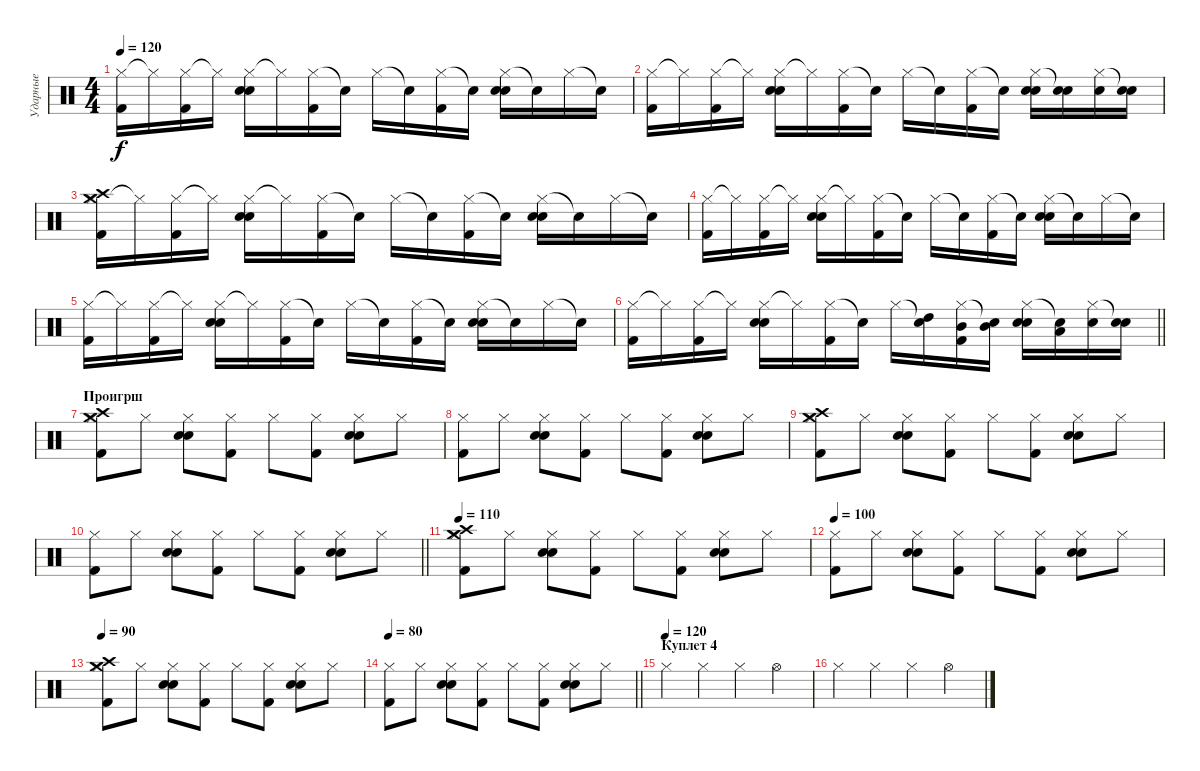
\track ("Ударные" "Ударные") {instrument percussion}
\staff {score}
\articulation defaults
\ts (4 4)
\tempo 120
\clef neutral
\ks c
("Hi-Hat (closed)" "Kick (hit) 2").16{dy f} "Hi-Hat (closed)"{t}.16 ("Hi-Hat (closed)" "Kick (hit) 2").16 "Hi-Hat (closed)"{t}.16 ("Hi-Hat (closed)" "Electric Snare (hit)" "Snare (hit) 2").16 "Hi-Hat (closed)"{t}.16 ("Hi-Hat (closed)" "Kick (hit) 2").16 "Snare (hit)"{t}.16 "Hi-Hat (closed)".16 "Snare (hit)"{t}.16 ("Hi-Hat (closed)" "Kick (hit) 2").16 "Snare (hit)"{t}.16 ("Hi-Hat (closed)" "Electric Snare (hit)" "Snare (hit) 2").16 "Snare (hit)"{t}.16 "Hi-Hat (closed)".16 "Snare (hit)"{t}.16 |
("Hi-Hat (closed)" "Kick (hit) 2").16 "Hi-Hat (closed)"{t}.16 ("Hi-Hat (closed)" "Kick (hit) 2").16 "Hi-Hat (closed)"{t}.16 ("Hi-Hat (closed)" "Electric Snare (hit)" "Snare (hit) 2").16 "Hi-Hat (closed)"{t}.16 ("Hi-Hat (closed)" "Kick (hit) 2").16 "Snare (hit)"{t}.16 "Hi-Hat (closed)".16 "Snare (hit)"{t}.16 ("Hi-Hat (closed)" "Kick (hit) 2").16 "Snare (hit)"{t}.16 ("Hi-Hat (closed)" "Electric Snare (hit)" "Snare (hit) 2").16 ("Snare (hit)"{t} "Electric Snare (hit)").16 ("Hi-Hat (closed)" "Electric Snare (hit)").16 ("Snare (hit)"{t} "Electric Snare (hit)").16 |
("Hi-Hat (closed)" "Crash medium (hit)" "Crash high (hit)" "Kick (hit) 2").16 "Hi-Hat (closed)"{t}.16 ("Hi-Hat (closed)" "Kick (hit) 2").16 "Hi-Hat (closed)"{t}.16 ("Hi-Hat (closed)" "Electric Snare (hit)" "Snare (hit) 2").16 "Hi-Hat (closed)"{t}.16 ("Hi-Hat (closed)" "Kick (hit) 2").16 "Snare (hit)"{t}.16 "Hi-Hat (closed)".16 "Snare (hit)"{t}.16 ("Hi-Hat (closed)" "Kick (hit) 2").16 "Snare (hit)"{t}.16 ("Hi-Hat (closed)" "Electric Snare (hit)" "Snare (hit) 2").16 "Snare (hit)"{t}.16 "Hi-Hat (closed)".16 "Snare (hit)"{t}.16 |
("Hi-Hat (closed)" "Kick (hit) 2").16 "Hi-Hat (closed)"{t}.16 ("Hi-Hat (closed)" "Kick (hit) 2").16 "Hi-Hat (closed)"{t}.16 ("Hi-Hat (closed)" "Electric Snare (hit)" "Snare (hit) 2").16 "Hi-Hat (closed)"{t}.16 ("Hi-Hat (closed)" "Kick (hit) 2").16 "Snare (hit)"{t}.16 "Hi-Hat (closed)".16 "Snare (hit)"{t}.16 ("Hi-Hat (closed)" "Kick (hit) 2").16 "Snare (hit)"{t}.16 ("Hi-Hat (closed)" "Electric Snare (hit)" "Snare (hit) 2").16 "Snare (hit)"{t}.16 "Hi-Hat (closed)".16 "Snare (hit)"{t}.16 |
("Hi-Hat (closed)" "Kick (hit) 2").16 "Hi-Hat (closed)"{t}.16 ("Hi-Hat (closed)" "Kick (hit) 2").16 "Hi-Hat (closed)"{t}.16 ("Hi-Hat (closed)" "Electric Snare (hit)" "Snare (hit) 2").16 "Hi-Hat (closed)"{t}.16 ("Hi-Hat (closed)" "Kick (hit) 2").16 "Snare (hit)"{t}.16 "Hi-Hat (closed)".16 "Snare (hit)"{t}.16 ("Hi-Hat (closed)" "Kick (hit) 2").16 "Snare (hit)"{t}.16 ("Hi-Hat (closed)" "Electric Snare (hit)" "Snare (hit) 2").16 "Snare (hit)"{t}.16 "Hi-Hat (closed)".16 "Snare (hit)"{t}.16 |
\barLineRight lightlight
("Hi-Hat (closed)" "Kick (hit) 2").16 "Hi-Hat (closed)"{t}.16 ("Hi-Hat (closed)" "Kick (hit) 2").16 "Hi-Hat (closed)"{t}.16 ("Hi-Hat (closed)" "Electric Snare (hit)" "Snare (hit) 2").16 "Hi-Hat (closed)"{t}.16 ("Hi-Hat (closed)" "Kick (hit) 2").16 "Snare (hit)"{t}.16 "Hi-Hat (closed)".16 ("Snare (hit)"{t} "High Tom (hit)").16 ("Hi-Hat (closed)" "Mid Tom (hit)" "Kick (hit) 2").16 ("Snare (hit)"{t} "Mid Tom (hit)").16 ("Hi-Hat (closed)" "Electric Snare (hit)" "Snare (hit) 2").16 ("Snare (hit)"{t} "Low Tom (hit)").16 ("Hi-Hat (closed)" "Electric Snare (hit)").16 ("Snare (hit)"{t} "Electric Snare (hit)").16 |
\section ("" "Проигрш")
("Hi-Hat (closed)" "Crash high (hit)" "Crash medium (hit)" "Kick (hit) 2").8 "Hi-Hat (closed)".8 ("Hi-Hat (closed)" "Electric Snare (hit)" "Snare (hit) 2").8 ("Hi-Hat (closed)" "Kick (hit) 2").8 "Hi-Hat (closed)".8 ("Hi-Hat (closed)" "Kick (hit) 2").8 ("Hi-Hat (closed)" "Snare (hit) 2" "Electric Snare (hit)").8 "Hi-Hat (closed)".8 |
("Hi-Hat (closed)" "Kick (hit) 2").8 "Hi-Hat (closed)".8 ("Hi-Hat (closed)" "Electric Snare (hit)" "Snare (hit) 2").8 ("Hi-Hat (closed)" "Kick (hit) 2").8 "Hi-Hat (closed)".8 ("Hi-Hat (closed)" "Kick (hit) 2").8 ("Hi-Hat (closed)" "Snare (hit) 2" "Electric Snare (hit)").8 "Hi-Hat (closed)".8 |
("Hi-Hat (closed)" "Crash high (hit)" "Crash medium (hit)" "Kick (hit) 2").8 "Hi-Hat (closed)".8 ("Hi-Hat (closed)" "Electric Snare (hit)" "Snare (hit) 2").8 ("Hi-Hat (closed)" "Kick (hit) 2").8 "Hi-Hat (closed)".8 ("Hi-Hat (closed)" "Kick (hit) 2").8 ("Hi-Hat (closed)" "Snare (hit) 2" "Electric Snare (hit)").8 "Hi-Hat (closed)".8 |
\barLineRight lightlight
("Hi-Hat (closed)" "Kick (hit) 2").8 "Hi-Hat (closed)".8 ("Hi-Hat (closed)" "Electric Snare (hit)" "Snare (hit) 2").8 ("Hi-Hat (closed)" "Kick (hit) 2").8 "Hi-Hat (closed)".8 ("Hi-Hat (closed)" "Kick (hit) 2").8 ("Hi-Hat (closed)" "Snare (hit) 2" "Electric Snare (hit)").8 "Hi-Hat (closed)".8 |
\tempo 110
("Hi-Hat (closed)" "Crash high (hit)" "Crash medium (hit)" "Kick (hit) 2").8 "Hi-Hat (closed)".8 ("Hi-Hat (closed)" "Electric Snare (hit)" "Snare (hit) 2").8 ("Hi-Hat (closed)" "Kick (hit) 2").8 "Hi-Hat (closed)".8 ("Hi-Hat (closed)" "Kick (hit) 2").8 ("Hi-Hat (closed)" "Snare (hit) 2" "Electric Snare (hit)").8 "Hi-Hat (closed)".8 |
\tempo 100
("Hi-Hat (closed)" "Kick (hit) 2").8 "Hi-Hat (closed)".8 ("Hi-Hat (closed)" "Electric Snare (hit)" "Snare (hit) 2").8 ("Hi-Hat (closed)" "Kick (hit) 2").8 "Hi-Hat (closed)".8 ("Hi-Hat (closed)" "Kick (hit) 2").8 ("Hi-Hat (closed)" "Snare (hit) 2" "Electric Snare (hit)").8 "Hi-Hat (closed)".8 |
\tempo 90
("Hi-Hat (closed)" "Crash high (hit)" "Crash medium (hit)" "Kick (hit) 2").8 "Hi-Hat (closed)".8 ("Hi-Hat (closed)" "Electric Snare (hit)" "Snare (hit) 2").8 ("Hi-Hat (closed)" "Kick (hit) 2").8 "Hi-Hat (closed)".8 ("Hi-Hat (closed)" "Kick (hit) 2").8 ("Hi-Hat (closed)" "Snare (hit) 2" "Electric Snare (hit)").8 "Hi-Hat (closed)".8 |
\tempo 80
\barLineRight lightlight
("Hi-Hat (closed)" "Kick (hit) 2").8 "Hi-Hat (closed)".8 ("Hi-Hat (closed)" "Electric Snare (hit)" "Snare (hit) 2").8 ("Hi-Hat (closed)" "Kick (hit) 2").8 "Hi-Hat (closed)".8 ("Hi-Hat (closed)" "Kick (hit) 2").8 ("Hi-Hat (closed)" "Snare (hit) 2" "Electric Snare (hit)").8 "Hi-Hat (closed)".8 |
\section ("" "Куплет 4")
\tempo (120)
"Hi-Hat (closed)".4 "Hi-Hat (closed)".4 "Hi-Hat (closed)".4 "Hi-Hat (open)".4 |
"Hi-Hat (closed)".4 "Hi-Hat (closed)".4 "Hi-Hat (closed)".4 "Hi-Hat (open)".4
